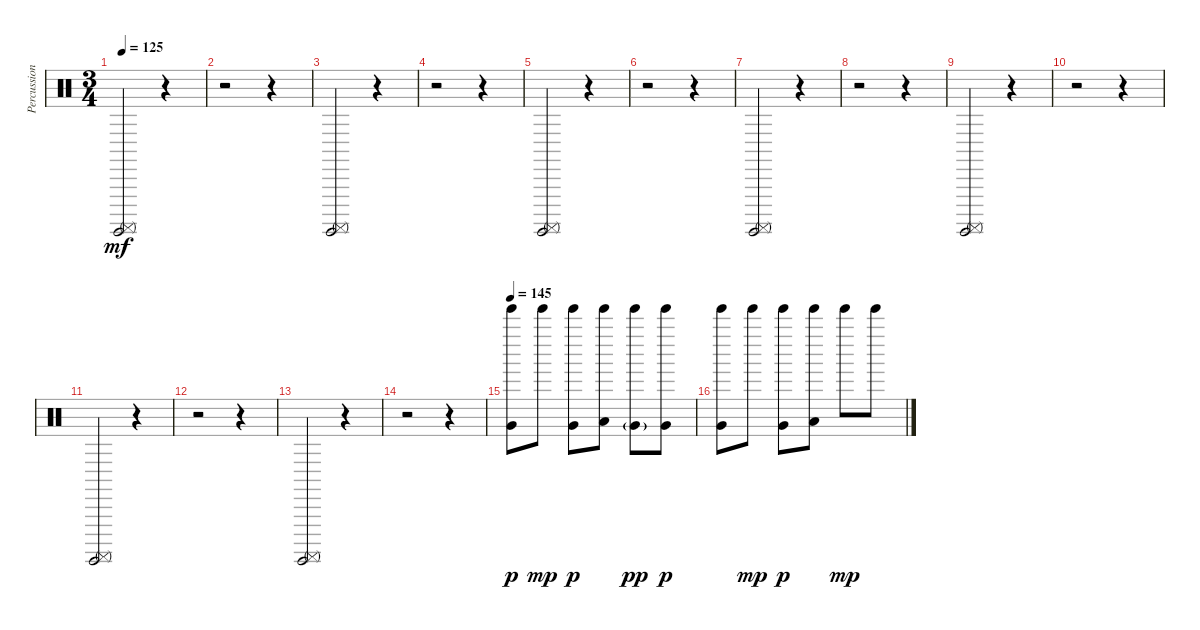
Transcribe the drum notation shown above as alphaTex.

\track ("Percussion" "Percussion") {instrument percussion}
\staff {score}
\articulation defaults
\ts (3 4)
\tempo 125
\clef neutral
\ks c
("Surdo (hit)" "Surdo (mute)").2{dy mf} r.4 |
r.2 r.4 |
("Surdo (hit)" "Surdo (mute)").2 r.4 |
r.2 r.4 |
("Surdo (hit)" "Surdo (mute)").2 r.4 |
r.2 r.4 |
("Surdo (hit)" "Surdo (mute)").2 r.4 |
r.2 r.4 |
("Surdo (hit)" "Surdo (mute)").2 r.4 |
r.2 r.4 |
("Surdo (hit)" "Surdo (mute)").2 r.4 |
r.2 r.4 |
("Surdo (hit)" "Surdo (mute)").2 r.4 |
r.2 r.4 |
\tempo 145
("Tinkle Bell (hit)" "Very Low Tom (hit)").8{dy p} "Tinkle Bell (hit)".8{dy mp} ("Tinkle Bell (hit)" "Very Low Tom (hit)").8{dy p} ("Tinkle Bell (hit)" "Low Floor Tom (hit)").8 ("Tinkle Bell (hit)" "Very Low Tom (hit)"{g}).8{dy pp} ("Tinkle Bell (hit)" "Very Low Tom (hit)").8{dy p} |
("Tinkle Bell (hit)" "Very Low Tom (hit)").8 "Tinkle Bell (hit)".8{dy mp} ("Tinkle Bell (hit)" "Very Low Tom (hit)").8{dy p} ("Tinkle Bell (hit)" "Low Floor Tom (hit)").8 "Tinkle Bell (hit)".8{dy mp} "Tinkle Bell (hit)".8
